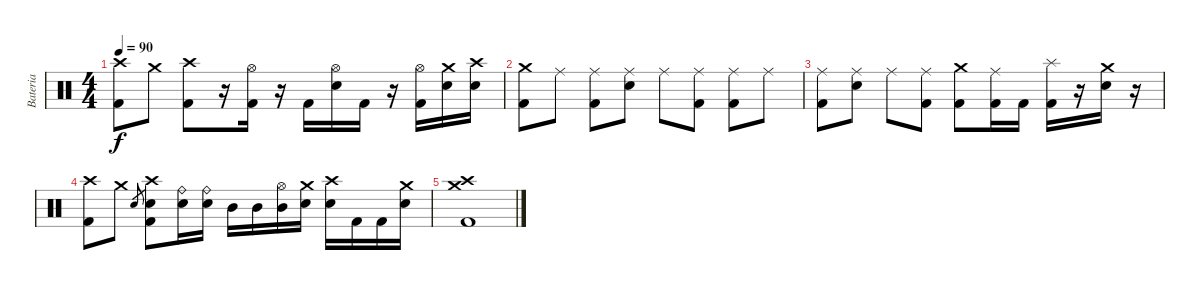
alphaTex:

\track ("Bateria" "Bateria") {instrument percussion}
\staff {score}
\articulation defaults
\ts (4 4)
\tempo 90
\clef neutral
\ks c
("Crash high (hit)" "Kick (hit) 2").8{dy f} "Crash medium (hit)".8 ("Crash high (hit)" "Kick (hit) 2").8 r.16 ("Hi-Hat (open)" "Kick (hit) 2").16 r.16 "Kick (hit) 2".16 ("Hi-Hat (open)" "Snare (hit) 2").16 "Kick (hit) 2".16 r.16 ("Hi-Hat (open)" "Kick (hit) 2").16 ("Crash medium (hit)" "Snare (hit) 2").16 ("Crash high (hit)" "Snare (hit) 2").16 |
("Crash medium (hit)" "Kick (hit) 2").8 "Ride (middle)".8 ("Ride (middle)" "Kick (hit) 2").8 ("Ride (middle)" "Snare (hit) 2").8 "Ride (middle)".8 ("Ride (middle)" "Kick (hit) 2").8 ("Ride (middle)" "Kick (hit) 2").8 "Ride (middle)".8 |
("Ride (middle)" "Kick (hit) 2").8 ("Ride (middle)" "Snare (hit) 2").8 "Ride (middle)".8 ("Ride (middle)" "Kick (hit) 2").8 ("Crash medium (hit)" "Kick (hit) 2").8 ("Ride (middle)" "Kick (hit) 2").16 "Kick (hit) 2".16 ("Splash (hit)" "Kick (hit) 2").16 r.16 ("Crash medium (hit)" "Snare (hit) 2").16 r.16 |
("Crash high (hit)" "Kick (hit) 2").8 "Crash medium (hit)".8 "Snare (hit) 2".8{gr} ("Crash high (hit)" "Snare (hit) 2" "Kick (hit) 2").8 ("Ride (bell)" "Snare (hit) 2").16 ("Ride (bell)" "Snare (hit) 2").16 "Mid Tom (hit)".16 "Mid Tom (hit)".16 ("Hi-Hat (open)" "Mid Tom (hit)").16 ("Crash medium (hit)" "Snare (hit) 2").16 ("Crash high (hit)" "Snare (hit) 2").16 "Kick (hit) 2".16 "Kick (hit) 2".16 ("Crash medium (hit)" "Snare (hit) 2").16 |
("Crash high (hit)" "Crash medium (hit)" "Kick (hit) 2").1
